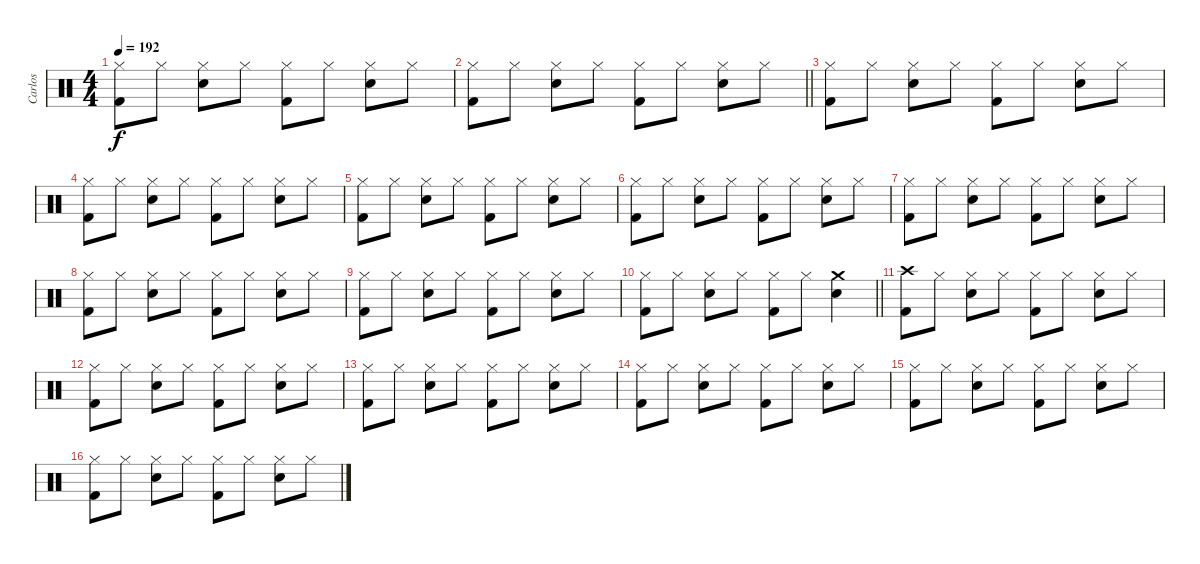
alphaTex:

\track ("Carlos" "Carlos") {instrument percussion}
\staff {score}
\articulation defaults
\ts (4 4)
\tempo 192
\clef neutral
\ks c
("Hi-Hat (closed)" "Kick (hit) 2").8{dy f} "Hi-Hat (closed)".8 ("Hi-Hat (closed)" "Snare (hit) 2").8 "Hi-Hat (closed)".8 ("Hi-Hat (closed)" "Kick (hit) 2").8 "Hi-Hat (closed)".8 ("Hi-Hat (closed)" "Snare (hit) 2").8 "Hi-Hat (closed)".8 |
\barLineRight lightlight
("Hi-Hat (closed)" "Kick (hit) 2").8 "Hi-Hat (closed)".8 ("Hi-Hat (closed)" "Snare (hit) 2").8 "Hi-Hat (closed)".8 ("Hi-Hat (closed)" "Kick (hit) 2").8 "Hi-Hat (closed)".8 ("Hi-Hat (closed)" "Snare (hit) 2").8 "Hi-Hat (closed)".8 |
("Hi-Hat (closed)" "Kick (hit) 2").8 "Hi-Hat (closed)".8 ("Hi-Hat (closed)" "Snare (hit) 2").8 "Hi-Hat (closed)".8 ("Hi-Hat (closed)" "Kick (hit) 2").8 "Hi-Hat (closed)".8 ("Hi-Hat (closed)" "Snare (hit) 2").8 "Hi-Hat (closed)".8 |
("Hi-Hat (closed)" "Kick (hit) 2").8 "Hi-Hat (closed)".8 ("Hi-Hat (closed)" "Snare (hit) 2").8 "Hi-Hat (closed)".8 ("Hi-Hat (closed)" "Kick (hit) 2").8 "Hi-Hat (closed)".8 ("Hi-Hat (closed)" "Snare (hit) 2").8 "Hi-Hat (closed)".8 |
("Hi-Hat (closed)" "Kick (hit) 2").8 "Hi-Hat (closed)".8 ("Hi-Hat (closed)" "Snare (hit) 2").8 "Hi-Hat (closed)".8 ("Hi-Hat (closed)" "Kick (hit) 2").8 "Hi-Hat (closed)".8 ("Hi-Hat (closed)" "Snare (hit) 2").8 "Hi-Hat (closed)".8 |
("Hi-Hat (closed)" "Kick (hit) 2").8 "Hi-Hat (closed)".8 ("Hi-Hat (closed)" "Snare (hit) 2").8 "Hi-Hat (closed)".8 ("Hi-Hat (closed)" "Kick (hit) 2").8 "Hi-Hat (closed)".8 ("Hi-Hat (closed)" "Snare (hit) 2").8 "Hi-Hat (closed)".8 |
("Hi-Hat (closed)" "Kick (hit) 2").8 "Hi-Hat (closed)".8 ("Hi-Hat (closed)" "Snare (hit) 2").8 "Hi-Hat (closed)".8 ("Hi-Hat (closed)" "Kick (hit) 2").8 "Hi-Hat (closed)".8 ("Hi-Hat (closed)" "Snare (hit) 2").8 "Hi-Hat (closed)".8 |
("Hi-Hat (closed)" "Kick (hit) 2").8 "Hi-Hat (closed)".8 ("Hi-Hat (closed)" "Snare (hit) 2").8 "Hi-Hat (closed)".8 ("Hi-Hat (closed)" "Kick (hit) 2").8 "Hi-Hat (closed)".8 ("Hi-Hat (closed)" "Snare (hit) 2").8 "Hi-Hat (closed)".8 |
("Hi-Hat (closed)" "Kick (hit) 2").8 "Hi-Hat (closed)".8 ("Hi-Hat (closed)" "Snare (hit) 2").8 "Hi-Hat (closed)".8 ("Hi-Hat (closed)" "Kick (hit) 2").8 "Hi-Hat (closed)".8 ("Hi-Hat (closed)" "Snare (hit) 2").8 "Hi-Hat (closed)".8 |
\barLineRight lightlight
("Hi-Hat (closed)" "Kick (hit) 2").8 "Hi-Hat (closed)".8 ("Hi-Hat (closed)" "Snare (hit) 2").8 "Hi-Hat (closed)".8 ("Hi-Hat (closed)" "Kick (hit) 2").8 "Hi-Hat (closed)".8 ("Crash medium (hit)" "Snare (hit) 2").4 |
("Crash high (hit)" "Kick (hit) 2").8 "Hi-Hat (closed)".8 ("Hi-Hat (closed)" "Snare (hit) 2").8 "Hi-Hat (closed)".8 ("Hi-Hat (closed)" "Kick (hit) 2").8 "Hi-Hat (closed)".8 ("Hi-Hat (closed)" "Snare (hit) 2").8 "Hi-Hat (closed)".8 |
("Hi-Hat (closed)" "Kick (hit) 2").8 "Hi-Hat (closed)".8 ("Hi-Hat (closed)" "Snare (hit) 2").8 "Hi-Hat (closed)".8 ("Hi-Hat (closed)" "Kick (hit) 2").8 "Hi-Hat (closed)".8 ("Hi-Hat (closed)" "Snare (hit) 2").8 "Hi-Hat (closed)".8 |
("Hi-Hat (closed)" "Kick (hit) 2").8 "Hi-Hat (closed)".8 ("Hi-Hat (closed)" "Snare (hit) 2").8 "Hi-Hat (closed)".8 ("Hi-Hat (closed)" "Kick (hit) 2").8 "Hi-Hat (closed)".8 ("Hi-Hat (closed)" "Snare (hit) 2").8 "Hi-Hat (closed)".8 |
("Hi-Hat (closed)" "Kick (hit) 2").8 "Hi-Hat (closed)".8 ("Hi-Hat (closed)" "Snare (hit) 2").8 "Hi-Hat (closed)".8 ("Hi-Hat (closed)" "Kick (hit) 2").8 "Hi-Hat (closed)".8 ("Hi-Hat (closed)" "Snare (hit) 2").8 "Hi-Hat (closed)".8 |
("Hi-Hat (closed)" "Kick (hit) 2").8 "Hi-Hat (closed)".8 ("Hi-Hat (closed)" "Snare (hit) 2").8 "Hi-Hat (closed)".8 ("Hi-Hat (closed)" "Kick (hit) 2").8 "Hi-Hat (closed)".8 ("Hi-Hat (closed)" "Snare (hit) 2").8 "Hi-Hat (closed)".8 |
("Hi-Hat (closed)" "Kick (hit) 2").8 "Hi-Hat (closed)".8 ("Hi-Hat (closed)" "Snare (hit) 2").8 "Hi-Hat (closed)".8 ("Hi-Hat (closed)" "Kick (hit) 2").8 "Hi-Hat (closed)".8 ("Hi-Hat (closed)" "Snare (hit) 2").8 "Hi-Hat (closed)".8
